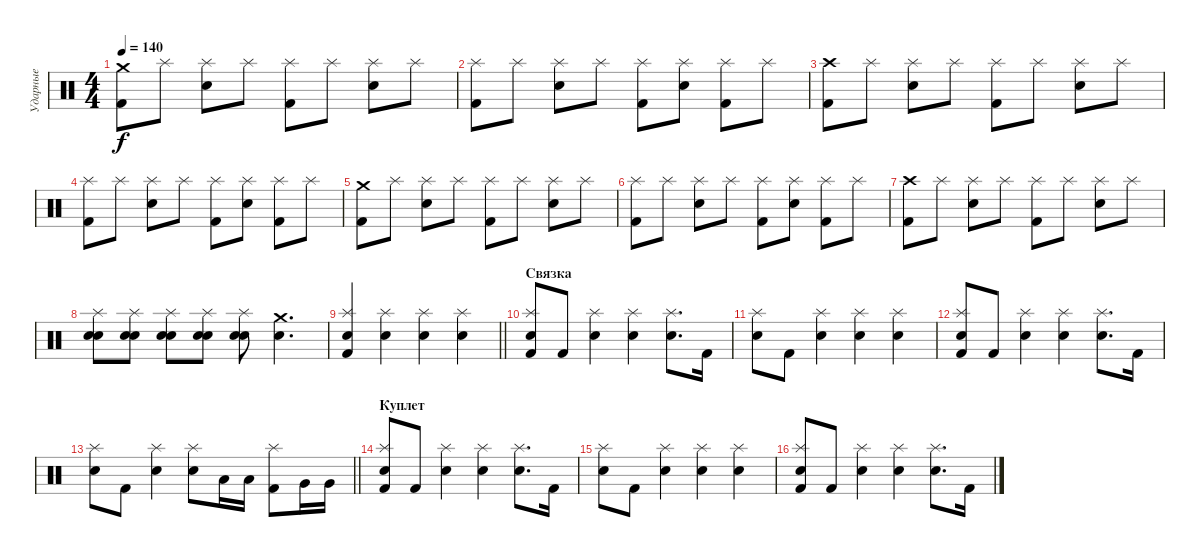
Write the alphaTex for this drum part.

\track ("Ударные" "Ударные") {instrument percussion}
\staff {score}
\articulation defaults
\ts (4 4)
\tempo 140
\clef neutral
\ks c
("Crash medium (hit)" "Kick (hit) 2").8{dy f} "Splash (hit)".8 ("Splash (hit)" "Electric Snare (hit)").8 "Splash (hit)".8 ("Splash (hit)" "Kick (hit) 2").8 "Splash (hit)".8 ("Splash (hit)" "Electric Snare (hit)").8 "Splash (hit)".8 |
("Splash (hit)" "Kick (hit) 2").8 "Splash (hit)".8 ("Splash (hit)" "Electric Snare (hit)").8 "Splash (hit)".8 ("Splash (hit)" "Kick (hit) 2").8 ("Splash (hit)" "Electric Snare (hit)").8 ("Splash (hit)" "Kick (hit) 2").8 "Splash (hit)".8 |
("Crash high (hit)" "Kick (hit) 2").8 "Splash (hit)".8 ("Splash (hit)" "Electric Snare (hit)").8 "Splash (hit)".8 ("Splash (hit)" "Kick (hit) 2").8 "Splash (hit)".8 ("Splash (hit)" "Electric Snare (hit)").8 "Splash (hit)".8 |
("Splash (hit)" "Kick (hit) 2").8 "Splash (hit)".8 ("Splash (hit)" "Electric Snare (hit)").8 "Splash (hit)".8 ("Splash (hit)" "Kick (hit) 2").8 ("Splash (hit)" "Electric Snare (hit)").8 ("Splash (hit)" "Kick (hit) 2").8 "Splash (hit)".8 |
("Crash medium (hit)" "Kick (hit) 2").8 "Splash (hit)".8 ("Splash (hit)" "Electric Snare (hit)").8 "Splash (hit)".8 ("Splash (hit)" "Kick (hit) 2").8 "Splash (hit)".8 ("Splash (hit)" "Electric Snare (hit)").8 "Splash (hit)".8 |
("Splash (hit)" "Kick (hit) 2").8 "Splash (hit)".8 ("Splash (hit)" "Electric Snare (hit)").8 "Splash (hit)".8 ("Splash (hit)" "Kick (hit) 2").8 ("Splash (hit)" "Electric Snare (hit)").8 ("Splash (hit)" "Kick (hit) 2").8 "Splash (hit)".8 |
("Crash high (hit)" "Kick (hit) 2").8 "Splash (hit)".8 ("Splash (hit)" "Electric Snare (hit)").8 "Splash (hit)".8 ("Splash (hit)" "Kick (hit) 2").8 "Splash (hit)".8 ("Splash (hit)" "Electric Snare (hit)").8 "Splash (hit)".8 |
("Splash (hit)" "Electric Snare (hit)" "Snare (hit) 2").8 ("Splash (hit)" "Electric Snare (hit)" "Snare (hit) 2").8 ("Splash (hit)" "Electric Snare (hit)" "Snare (hit) 2").8 ("Splash (hit)" "Electric Snare (hit)" "Snare (hit) 2").8 ("Splash (hit)" "Electric Snare (hit)" "Snare (hit) 2").8 ("Crash medium (hit)" "Electric Snare (hit)").4{d} |
\barLineRight lightlight
("Splash (hit)" "Electric Snare (hit)" "Kick (hit) 2").4 ("Splash (hit)" "Electric Snare (hit)").4 ("Splash (hit)" "Electric Snare (hit)").4 ("Splash (hit)" "Electric Snare (hit)").4 |
\section ("" "Связка")
("Splash (hit)" "Electric Snare (hit)" "Kick (hit) 2").8 "Kick (hit) 2".8 ("Splash (hit)" "Electric Snare (hit)").4 ("Splash (hit)" "Electric Snare (hit)").4 ("Splash (hit)" "Electric Snare (hit)").8{d} "Kick (hit) 2".16 |
("Splash (hit)" "Electric Snare (hit)").8 "Kick (hit) 2".8 ("Splash (hit)" "Electric Snare (hit)").4 ("Splash (hit)" "Electric Snare (hit)").4 ("Splash (hit)" "Electric Snare (hit)").4 |
("Splash (hit)" "Electric Snare (hit)" "Kick (hit) 2").8 "Kick (hit) 2".8 ("Splash (hit)" "Electric Snare (hit)").4 ("Splash (hit)" "Electric Snare (hit)").4 ("Splash (hit)" "Electric Snare (hit)").8{d} "Kick (hit) 2".16 |
\barLineRight lightlight
("Splash (hit)" "Electric Snare (hit)").8 "Kick (hit) 2".8 ("Splash (hit)" "Electric Snare (hit)").4 ("Splash (hit)" "Electric Snare (hit)").8 "Low Tom (hit)".16 "Low Tom (hit)".16 ("Splash (hit)" "Kick (hit) 2").8 "Very Low Tom (hit)".16 "Very Low Tom (hit)".16 |
\section ("" "Куплет")
("Splash (hit)" "Electric Snare (hit)" "Kick (hit) 2").8 "Kick (hit) 2".8 ("Splash (hit)" "Electric Snare (hit)").4 ("Splash (hit)" "Electric Snare (hit)").4 ("Splash (hit)" "Electric Snare (hit)").8{d} "Kick (hit) 2".16 |
("Splash (hit)" "Electric Snare (hit)").8 "Kick (hit) 2".8 ("Splash (hit)" "Electric Snare (hit)").4 ("Splash (hit)" "Electric Snare (hit)").4 ("Splash (hit)" "Electric Snare (hit)").4 |
("Splash (hit)" "Electric Snare (hit)" "Kick (hit) 2").8 "Kick (hit) 2".8 ("Splash (hit)" "Electric Snare (hit)").4 ("Splash (hit)" "Electric Snare (hit)").4 ("Splash (hit)" "Electric Snare (hit)").8{d} "Kick (hit) 2".16
